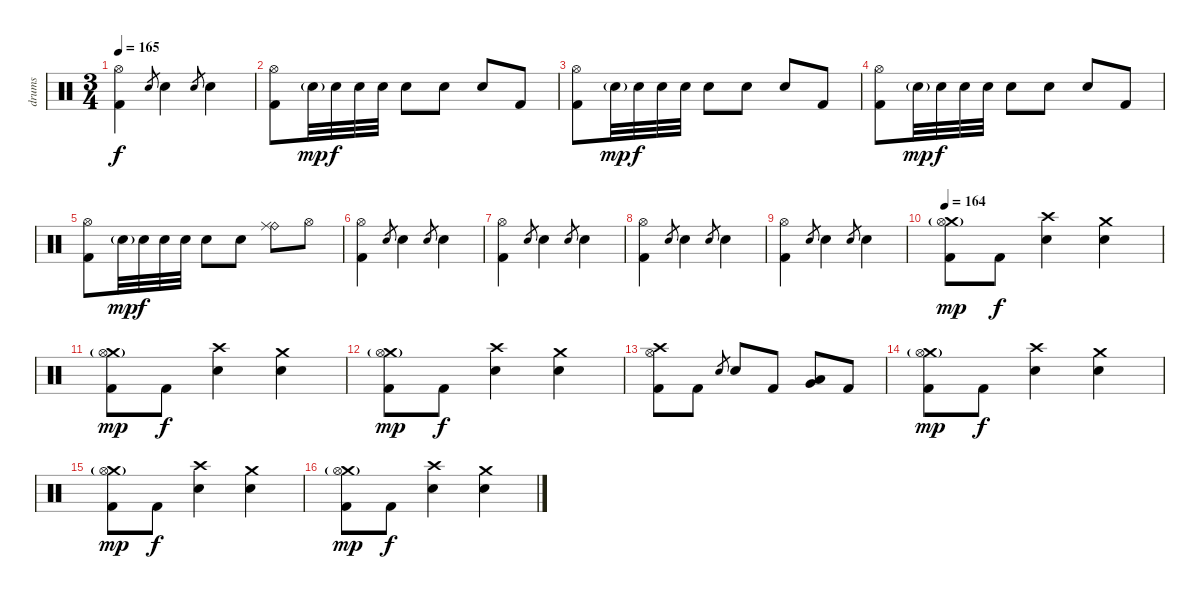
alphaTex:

\track ("drums" "drums") {instrument percussion}
\staff {score}
\articulation defaults
\ts (3 4)
\tempo 165
\clef neutral
\ks c
("Hi-Hat (open)" "Kick (hit) 2").4{dy f} "Snare (hit) 2".8{gr} "Snare (hit) 2".4 "Snare (hit) 2".8{gr} "Snare (hit) 2".4 |
("Hi-Hat (open)" "Kick (hit) 2").8 "Snare (hit) 2"{g}.32{dy mp} "Snare (hit) 2".32{dy f} "Snare (hit) 2".32 "Snare (hit) 2".32 "Snare (hit) 2".8 "Snare (hit) 2".8 "Snare (hit) 2".8 "Kick (hit) 2".8 |
("Hi-Hat (open)" "Kick (hit) 2").8 "Snare (hit) 2"{g}.32{dy mp} "Snare (hit) 2".32{dy f} "Snare (hit) 2".32 "Snare (hit) 2".32 "Snare (hit) 2".8 "Snare (hit) 2".8 "Snare (hit) 2".8 "Kick (hit) 2".8 |
("Hi-Hat (open)" "Kick (hit) 2").8 "Snare (hit) 2"{g}.32{dy mp} "Snare (hit) 2".32{dy f} "Snare (hit) 2".32 "Snare (hit) 2".32 "Snare (hit) 2".8 "Snare (hit) 2".8 "Snare (hit) 2".8 "Kick (hit) 2".8 |
("Hi-Hat (open)" "Kick (hit) 2").8 "Snare (hit) 2"{g}.32{dy mp} "Snare (hit) 2".32{dy f} "Snare (hit) 2".32 "Snare (hit) 2".32 "Snare (hit) 2".8 "Snare (hit) 2".8 ("Ride (bell)" "Ride (middle)").8 "Hi-Hat (open)".8 |
("Hi-Hat (open)" "Kick (hit) 2").4 "Snare (hit) 2".8{gr} "Snare (hit) 2".4 "Snare (hit) 2".8{gr} "Snare (hit) 2".4 |
("Hi-Hat (open)" "Kick (hit) 2").4 "Snare (hit) 2".8{gr} "Snare (hit) 2".4 "Snare (hit) 2".8{gr} "Snare (hit) 2".4 |
("Hi-Hat (open)" "Kick (hit) 2").4 "Snare (hit) 2".8{gr} "Snare (hit) 2".4 "Snare (hit) 2".8{gr} "Snare (hit) 2".4 |
("Hi-Hat (open)" "Kick (hit) 2").4 "Snare (hit) 2".8{gr} "Snare (hit) 2".4 "Snare (hit) 2".8{gr} "Snare (hit) 2".4 |
\tempo 164
("Crash medium (hit)"{g} "Hi-Hat (open)" "Kick (hit) 2").8{dy mp} "Kick (hit) 2".8{dy f} ("Crash high (hit)" "Snare (hit) 2").4 ("Crash medium (hit)" "Snare (hit) 2").4 |
("Crash medium (hit)"{g} "Hi-Hat (open)" "Kick (hit) 2").8{dy mp} "Kick (hit) 2".8{dy f} ("Crash high (hit)" "Snare (hit) 2").4 ("Crash medium (hit)" "Snare (hit) 2").4 |
("Crash medium (hit)"{g} "Hi-Hat (open)" "Kick (hit) 2").8{dy mp} "Kick (hit) 2".8{dy f} ("Crash high (hit)" "Snare (hit) 2").4 ("Crash medium (hit)" "Snare (hit) 2").4 |
("Crash high (hit)" "Hi-Hat (open)" "Kick (hit) 2").8 "Kick (hit) 2".8 "Snare (hit) 2".8{gr} "Snare (hit) 2".8 "Kick (hit) 2".8 ("Very Low Tom (hit)" "Low Floor Tom (hit)").8 "Kick (hit) 2".8 |
("Crash medium (hit)"{g} "Hi-Hat (open)" "Kick (hit) 2").8{dy mp} "Kick (hit) 2".8{dy f} ("Crash high (hit)" "Snare (hit) 2").4 ("Crash medium (hit)" "Snare (hit) 2").4 |
("Crash medium (hit)"{g} "Hi-Hat (open)" "Kick (hit) 2").8{dy mp} "Kick (hit) 2".8{dy f} ("Crash high (hit)" "Snare (hit) 2").4 ("Crash medium (hit)" "Snare (hit) 2").4 |
("Crash medium (hit)"{g} "Hi-Hat (open)" "Kick (hit) 2").8{dy mp} "Kick (hit) 2".8{dy f} ("Crash high (hit)" "Snare (hit) 2").4 ("Crash medium (hit)" "Snare (hit) 2").4
